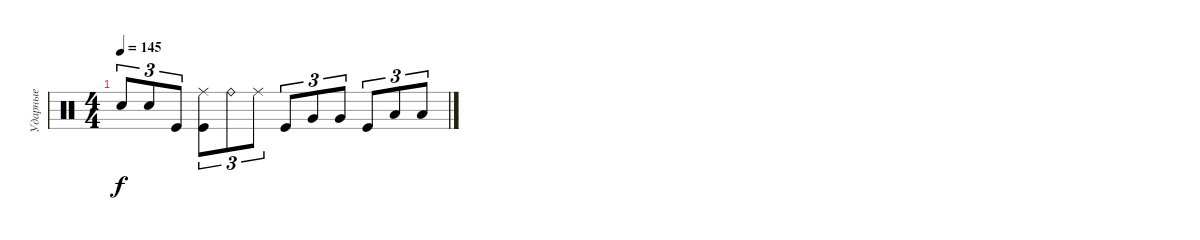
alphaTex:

\track ("Ударные" "Ударные") {instrument percussion}
\staff {score}
\articulation defaults
\ts (4 4)
\tempo 145
\clef neutral
\ks c "Electric Snare (hit)".8{tu (3 2) dy f} "Electric Snare (hit)".8{tu (3 2)} "Kick (hit)".8{tu (3 2)}
("Ride (middle)" "Kick (hit)").8{tu (3 2)} "Ride (bell)".8{tu (3 2)} "Ride (middle)".8{tu (3 2)} "Kick (hit)".8{tu (3 2)} "Very Low Tom (hit)".8{tu (3 2)} "Very Low Tom (hit)".8{tu (3 2)} "Kick (hit)".8{tu (3 2)} "Low Tom (hit)".8{tu (3 2)} "Low Tom (hit)".8{tu (3 2)}
